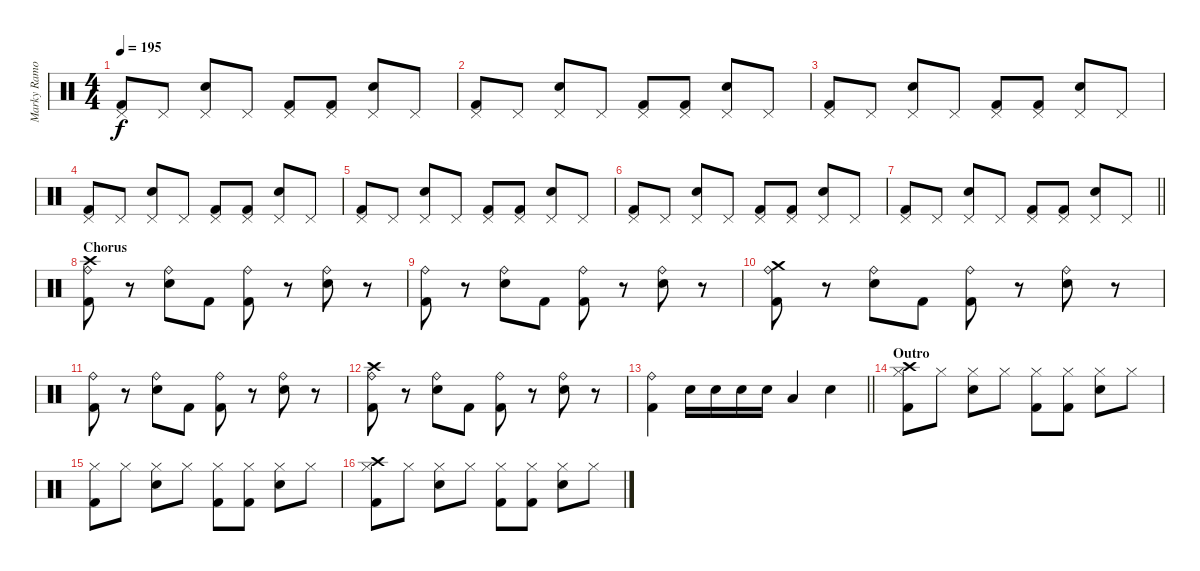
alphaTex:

\track ("Marky Ramones" "Marky Ramo") {instrument percussion}
\staff {score}
\articulation defaults
\ts (4 4)
\tempo 195
\clef neutral
\ks c
("Pedal Hi-Hat (hit)" "Kick (hit) 2").8{dy f} "Pedal Hi-Hat (hit)".8 ("Pedal Hi-Hat (hit)" "Electric Snare (hit)").8 "Pedal Hi-Hat (hit)".8 ("Pedal Hi-Hat (hit)" "Kick (hit) 2").8 ("Pedal Hi-Hat (hit)" "Kick (hit) 2").8 ("Pedal Hi-Hat (hit)" "Electric Snare (hit)").8 "Pedal Hi-Hat (hit)".8 |
("Pedal Hi-Hat (hit)" "Kick (hit) 2").8 "Pedal Hi-Hat (hit)".8 ("Pedal Hi-Hat (hit)" "Electric Snare (hit)").8 "Pedal Hi-Hat (hit)".8 ("Pedal Hi-Hat (hit)" "Kick (hit) 2").8 ("Pedal Hi-Hat (hit)" "Kick (hit) 2").8 ("Pedal Hi-Hat (hit)" "Electric Snare (hit)").8 "Pedal Hi-Hat (hit)".8 |
("Pedal Hi-Hat (hit)" "Kick (hit) 2").8 "Pedal Hi-Hat (hit)".8 ("Pedal Hi-Hat (hit)" "Electric Snare (hit)").8 "Pedal Hi-Hat (hit)".8 ("Pedal Hi-Hat (hit)" "Kick (hit) 2").8 ("Pedal Hi-Hat (hit)" "Kick (hit) 2").8 ("Pedal Hi-Hat (hit)" "Electric Snare (hit)").8 "Pedal Hi-Hat (hit)".8 |
("Pedal Hi-Hat (hit)" "Kick (hit) 2").8 "Pedal Hi-Hat (hit)".8 ("Pedal Hi-Hat (hit)" "Electric Snare (hit)").8 "Pedal Hi-Hat (hit)".8 ("Pedal Hi-Hat (hit)" "Kick (hit) 2").8 ("Pedal Hi-Hat (hit)" "Kick (hit) 2").8 ("Pedal Hi-Hat (hit)" "Electric Snare (hit)").8 "Pedal Hi-Hat (hit)".8 |
("Pedal Hi-Hat (hit)" "Kick (hit) 2").8 "Pedal Hi-Hat (hit)".8 ("Pedal Hi-Hat (hit)" "Electric Snare (hit)").8 "Pedal Hi-Hat (hit)".8 ("Pedal Hi-Hat (hit)" "Kick (hit) 2").8 ("Pedal Hi-Hat (hit)" "Kick (hit) 2").8 ("Pedal Hi-Hat (hit)" "Electric Snare (hit)").8 "Pedal Hi-Hat (hit)".8 |
("Pedal Hi-Hat (hit)" "Kick (hit) 2").8 "Pedal Hi-Hat (hit)".8 ("Pedal Hi-Hat (hit)" "Electric Snare (hit)").8 "Pedal Hi-Hat (hit)".8 ("Pedal Hi-Hat (hit)" "Kick (hit) 2").8 ("Pedal Hi-Hat (hit)" "Kick (hit) 2").8 ("Pedal Hi-Hat (hit)" "Electric Snare (hit)").8 "Pedal Hi-Hat (hit)".8 |
\barLineRight lightlight
("Pedal Hi-Hat (hit)" "Kick (hit) 2").8 "Pedal Hi-Hat (hit)".8 ("Pedal Hi-Hat (hit)" "Electric Snare (hit)").8 "Pedal Hi-Hat (hit)".8 ("Pedal Hi-Hat (hit)" "Kick (hit) 2").8 ("Pedal Hi-Hat (hit)" "Kick (hit) 2").8 ("Pedal Hi-Hat (hit)" "Electric Snare (hit)").8 "Pedal Hi-Hat (hit)".8 |
\section ("" "Chorus")
("Ride (bell)" "Kick (hit) 2" "Crash high (hit)").8 r.8 ("Ride (bell)" "Electric Snare (hit)").8 "Kick (hit) 2".8 ("Ride (bell)" "Kick (hit) 2").8 r.8 ("Ride (bell)" "Electric Snare (hit)").8 r.8 |
("Ride (bell)" "Kick (hit) 2").8 r.8 ("Ride (bell)" "Electric Snare (hit)").8 "Kick (hit) 2".8 ("Ride (bell)" "Kick (hit) 2").8 r.8 ("Ride (bell)" "Electric Snare (hit)").8 r.8 |
("Ride (bell)" "Kick (hit) 2" "Crash medium (hit)").8 r.8 ("Ride (bell)" "Electric Snare (hit)").8 "Kick (hit) 2".8 ("Ride (bell)" "Kick (hit) 2").8 r.8 ("Ride (bell)" "Electric Snare (hit)").8 r.8 |
("Ride (bell)" "Kick (hit) 2").8 r.8 ("Ride (bell)" "Electric Snare (hit)").8 "Kick (hit) 2".8 ("Ride (bell)" "Kick (hit) 2").8 r.8 ("Ride (bell)" "Electric Snare (hit)").8 r.8 |
("Ride (bell)" "Kick (hit) 2" "Crash high (hit)").8 r.8 ("Ride (bell)" "Electric Snare (hit)").8 "Kick (hit) 2".8 ("Ride (bell)" "Kick (hit) 2").8 r.8 ("Ride (bell)" "Electric Snare (hit)").8 r.8 |
\barLineRight lightlight
("Ride (bell)" "Kick (hit) 2").4 "Electric Snare (hit)".16 "Electric Snare (hit)".16 "Electric Snare (hit)".16 "Electric Snare (hit)".16 "Low Tom (hit)".4 "Electric Snare (hit)".4 |
\section ("" "Outro")
("Hi-Hat (closed)" "Kick (hit) 2" "Crash high (hit)").8 "Hi-Hat (closed)".8 ("Hi-Hat (closed)" "Electric Snare (hit)").8 "Hi-Hat (closed)".8 ("Hi-Hat (closed)" "Kick (hit) 2").8 ("Hi-Hat (closed)" "Kick (hit) 2").8 ("Hi-Hat (closed)" "Electric Snare (hit)").8 "Hi-Hat (closed)".8 |
("Hi-Hat (closed)" "Kick (hit) 2").8 "Hi-Hat (closed)".8 ("Hi-Hat (closed)" "Electric Snare (hit)").8 "Hi-Hat (closed)".8 ("Hi-Hat (closed)" "Kick (hit) 2").8 ("Hi-Hat (closed)" "Kick (hit) 2").8 ("Hi-Hat (closed)" "Electric Snare (hit)").8 "Hi-Hat (closed)".8 |
("Hi-Hat (closed)" "Kick (hit) 2" "Crash high (hit)").8 "Hi-Hat (closed)".8 ("Hi-Hat (closed)" "Electric Snare (hit)").8 "Hi-Hat (closed)".8 ("Hi-Hat (closed)" "Kick (hit) 2").8 ("Hi-Hat (closed)" "Kick (hit) 2").8 ("Hi-Hat (closed)" "Electric Snare (hit)").8 "Hi-Hat (closed)".8
